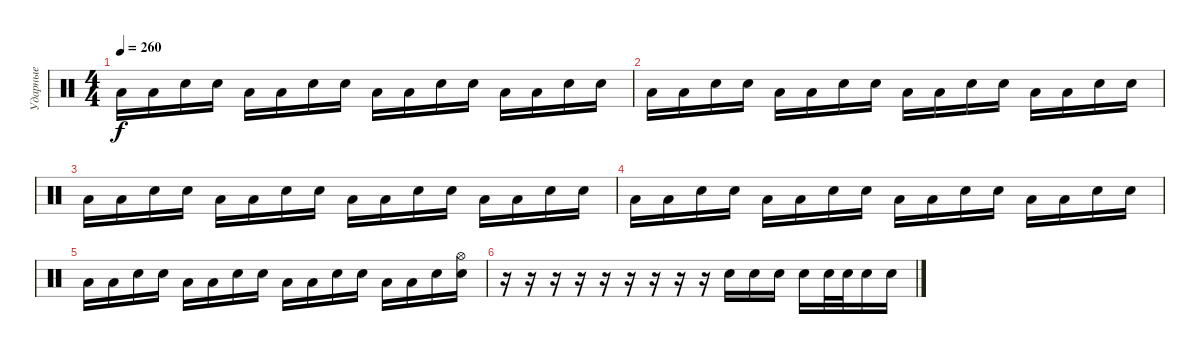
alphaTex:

\track ("Ударные" "Ударные") {instrument percussion}
\staff {score}
\articulation defaults
\ts (4 4)
\tempo 260
\clef neutral
\ks c "Low Floor Tom (hit)".16{dy f} "Low Floor Tom (hit)".16 "Electric Snare (hit)".16 "Electric Snare (hit)".16 "Low Floor Tom (hit)".16 "Low Floor Tom (hit)".16 "Electric Snare (hit)".16 "Electric Snare (hit)".16 "Low Floor Tom (hit)".16 "Low Floor Tom (hit)".16 "Electric Snare (hit)".16 "Electric Snare (hit)".16 "Low Floor Tom (hit)".16 "Low Floor Tom (hit)".16 "Electric Snare (hit)".16 "Electric Snare (hit)".16
|
"Low Floor Tom (hit)".16 "Low Floor Tom (hit)".16 "Electric Snare (hit)".16 "Electric Snare (hit)".16 "Low Floor Tom (hit)".16 "Low Floor Tom (hit)".16 "Electric Snare (hit)".16 "Electric Snare (hit)".16 "Low Floor Tom (hit)".16 "Low Floor Tom (hit)".16 "Electric Snare (hit)".16 "Electric Snare (hit)".16 "Low Floor Tom (hit)".16 "Low Floor Tom (hit)".16 "Electric Snare (hit)".16 "Electric Snare (hit)".16 |
"Low Floor Tom (hit)".16 "Low Floor Tom (hit)".16 "Electric Snare (hit)".16 "Electric Snare (hit)".16 "Low Floor Tom (hit)".16 "Low Floor Tom (hit)".16 "Electric Snare (hit)".16 "Electric Snare (hit)".16 "Low Floor Tom (hit)".16 "Low Floor Tom (hit)".16 "Electric Snare (hit)".16 "Electric Snare (hit)".16 "Low Floor Tom (hit)".16 "Low Floor Tom (hit)".16 "Electric Snare (hit)".16 "Electric Snare (hit)".16 |
"Low Floor Tom (hit)".16 "Low Floor Tom (hit)".16 "Electric Snare (hit)".16 "Electric Snare (hit)".16 "Low Floor Tom (hit)".16 "Low Floor Tom (hit)".16 "Electric Snare (hit)".16 "Electric Snare (hit)".16 "Low Floor Tom (hit)".16 "Low Floor Tom (hit)".16 "Electric Snare (hit)".16 "Electric Snare (hit)".16 "Low Floor Tom (hit)".16 "Low Floor Tom (hit)".16 "Electric Snare (hit)".16 "Electric Snare (hit)".16 |
"Low Floor Tom (hit)".16 "Low Floor Tom (hit)".16 "Electric Snare (hit)".16 "Electric Snare (hit)".16 "Low Floor Tom (hit)".16 "Low Floor Tom (hit)".16 "Electric Snare (hit)".16 "Electric Snare (hit)".16 "Low Floor Tom (hit)".16 "Low Floor Tom (hit)".16 "Electric Snare (hit)".16 "Electric Snare (hit)".16 "Low Floor Tom (hit)".16 "Low Floor Tom (hit)".16 "Electric Snare (hit)".16 ("Hi-Hat (open)" "Electric Snare (hit)").16 |
r.16 r.16 r.16 r.16 r.16 r.16 r.16 r.16 r.16 "Electric Snare (hit)".16 "Electric Snare (hit)".16 "Electric Snare (hit)".16 "Electric Snare (hit)".16 "Electric Snare (hit)".32 "Electric Snare (hit)".32 "Electric Snare (hit)".16 "Electric Snare (hit)".16
